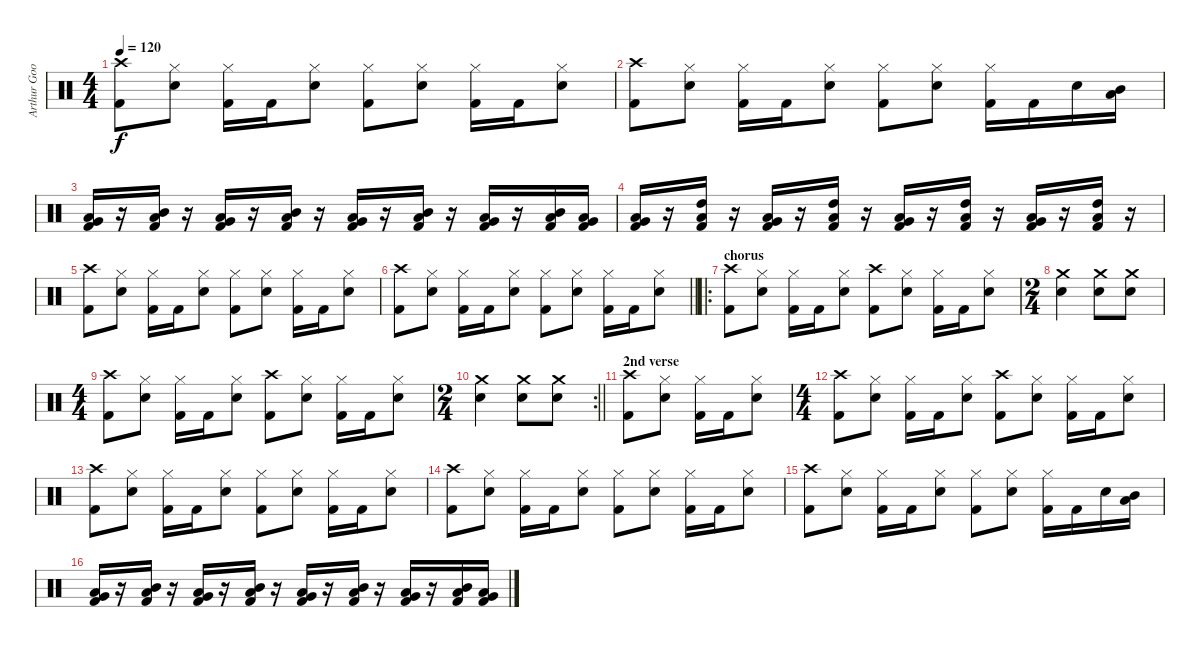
\track ("Arthur Googy" "Arthur Goo") {instrument percussion}
\staff {score}
\articulation defaults
\ts (4 4)
\tempo 120
\clef neutral
\ks c
("Crash high (hit)" "Kick (hit) 2").8{dy f} ("Hi-Hat (closed)" "Snare (hit) 2").8 ("Hi-Hat (closed)" "Kick (hit) 2").16 "Kick (hit) 2".16 ("Hi-Hat (closed)" "Snare (hit) 2").8 ("Hi-Hat (closed)" "Kick (hit) 2").8 ("Hi-Hat (closed)" "Snare (hit) 2").8 ("Hi-Hat (closed)" "Kick (hit) 2").16 "Kick (hit) 2".16 ("Hi-Hat (closed)" "Snare (hit) 2").8 |
("Crash high (hit)" "Kick (hit) 2").8 ("Hi-Hat (closed)" "Snare (hit) 2").8 ("Hi-Hat (closed)" "Kick (hit) 2").16 "Kick (hit) 2".16 ("Hi-Hat (closed)" "Snare (hit) 2").8 ("Hi-Hat (closed)" "Kick (hit) 2").8 ("Hi-Hat (closed)" "Snare (hit) 2").8 ("Hi-Hat (closed)" "Kick (hit) 2").16 "Kick (hit) 2".16 "Snare (hit) 2".16 ("Mid Tom (hit)" "Low Tom (hit)").16 |
("Low Tom (hit)" "Very Low Tom (hit)" "Kick (hit) 2").16 r.16 ("Mid Tom (hit)" "Low Tom (hit)" "Kick (hit) 2").16 r.16 ("Low Tom (hit)" "Very Low Tom (hit)" "Kick (hit) 2").16 r.16 ("Mid Tom (hit)" "Low Tom (hit)" "Kick (hit) 2").16 r.16 ("Low Tom (hit)" "Very Low Tom (hit)" "Kick (hit) 2").16 r.16 ("Mid Tom (hit)" "Low Tom (hit)" "Kick (hit) 2").16 r.16 ("Low Tom (hit)" "Very Low Tom (hit)" "Kick (hit) 2").16 r.16 ("Mid Tom (hit)" "Low Tom (hit)" "Kick (hit) 2").16 ("Low Tom (hit)" "Very Low Tom (hit)" "Kick (hit) 2").16 |
("Low Tom (hit)" "Very Low Tom (hit)" "Kick (hit) 2").16 r.16 ("High Tom (hit)" "Low Tom (hit)" "Kick (hit) 2").16 r.16 ("Low Tom (hit)" "Very Low Tom (hit)" "Kick (hit) 2").16 r.16 ("High Tom (hit)" "Low Tom (hit)" "Kick (hit) 2").16 r.16 ("Low Tom (hit)" "Very Low Tom (hit)" "Kick (hit) 2").16 r.16 ("High Tom (hit)" "Low Tom (hit)" "Kick (hit) 2").16 r.16 ("Low Tom (hit)" "Very Low Tom (hit)" "Kick (hit) 2").16 r.16 ("High Tom (hit)" "Low Tom (hit)" "Kick (hit) 2").16 r.16 |
("Crash high (hit)" "Kick (hit) 2").8 ("Hi-Hat (closed)" "Snare (hit) 2").8 ("Hi-Hat (closed)" "Kick (hit) 2").16 "Kick (hit) 2".16 ("Hi-Hat (closed)" "Snare (hit) 2").8 ("Hi-Hat (closed)" "Kick (hit) 2").8 ("Hi-Hat (closed)" "Snare (hit) 2").8 ("Hi-Hat (closed)" "Kick (hit) 2").16 "Kick (hit) 2".16 ("Hi-Hat (closed)" "Snare (hit) 2").8 |
\barLineRight lightlight
("Crash high (hit)" "Kick (hit) 2").8 ("Hi-Hat (closed)" "Snare (hit) 2").8 ("Hi-Hat (closed)" "Kick (hit) 2").16 "Kick (hit) 2".16 ("Hi-Hat (closed)" "Snare (hit) 2").8 ("Hi-Hat (closed)" "Kick (hit) 2").8 ("Hi-Hat (closed)" "Snare (hit) 2").8 ("Hi-Hat (closed)" "Kick (hit) 2").16 "Kick (hit) 2".16 ("Hi-Hat (closed)" "Snare (hit) 2").8 |
\ro
\section ("" "chorus")
("Crash high (hit)" "Kick (hit) 2").8 ("Hi-Hat (closed)" "Snare (hit) 2").8 ("Hi-Hat (closed)" "Kick (hit) 2").16 "Kick (hit) 2".16 ("Hi-Hat (closed)" "Snare (hit) 2").8 ("Crash high (hit)" "Kick (hit) 2").8 ("Hi-Hat (closed)" "Snare (hit) 2").8 ("Hi-Hat (closed)" "Kick (hit) 2").16 "Kick (hit) 2".16 ("Hi-Hat (closed)" "Snare (hit) 2").8 |
\ts (2 4)
("Crash medium (hit)" "Snare (hit) 2").4 ("Crash medium (hit)" "Snare (hit) 2").8 ("Crash medium (hit)" "Snare (hit) 2").8 |
\ts (4 4)
("Crash high (hit)" "Kick (hit) 2").8 ("Hi-Hat (closed)" "Snare (hit) 2").8 ("Hi-Hat (closed)" "Kick (hit) 2").16 "Kick (hit) 2".16 ("Hi-Hat (closed)" "Snare (hit) 2").8 ("Crash high (hit)" "Kick (hit) 2").8 ("Hi-Hat (closed)" "Snare (hit) 2").8 ("Hi-Hat (closed)" "Kick (hit) 2").16 "Kick (hit) 2".16 ("Hi-Hat (closed)" "Snare (hit) 2").8 |
\rc 2
\ts (2 4)
\barLineRight lightlight
("Crash medium (hit)" "Snare (hit) 2").4 ("Crash medium (hit)" "Snare (hit) 2").8 ("Crash medium (hit)" "Snare (hit) 2").8 |
\section ("" "2nd verse")
("Crash high (hit)" "Kick (hit) 2").8 ("Hi-Hat (closed)" "Snare (hit) 2").8 ("Hi-Hat (closed)" "Kick (hit) 2").16 "Kick (hit) 2".16 ("Hi-Hat (closed)" "Snare (hit) 2").8 |
\ts (4 4)
("Crash high (hit)" "Kick (hit) 2").8 ("Hi-Hat (closed)" "Snare (hit) 2").8 ("Hi-Hat (closed)" "Kick (hit) 2").16 "Kick (hit) 2".16 ("Hi-Hat (closed)" "Snare (hit) 2").8 ("Crash high (hit)" "Kick (hit) 2").8 ("Hi-Hat (closed)" "Snare (hit) 2").8 ("Hi-Hat (closed)" "Kick (hit) 2").16 "Kick (hit) 2".16 ("Hi-Hat (closed)" "Snare (hit) 2").8 |
("Crash high (hit)" "Kick (hit) 2").8 ("Hi-Hat (closed)" "Snare (hit) 2").8 ("Hi-Hat (closed)" "Kick (hit) 2").16 "Kick (hit) 2".16 ("Hi-Hat (closed)" "Snare (hit) 2").8 ("Hi-Hat (closed)" "Kick (hit) 2").8 ("Hi-Hat (closed)" "Snare (hit) 2").8 ("Hi-Hat (closed)" "Kick (hit) 2").16 "Kick (hit) 2".16 ("Hi-Hat (closed)" "Snare (hit) 2").8 |
("Crash high (hit)" "Kick (hit) 2").8 ("Hi-Hat (closed)" "Snare (hit) 2").8 ("Hi-Hat (closed)" "Kick (hit) 2").16 "Kick (hit) 2".16 ("Hi-Hat (closed)" "Snare (hit) 2").8 ("Hi-Hat (closed)" "Kick (hit) 2").8 ("Hi-Hat (closed)" "Snare (hit) 2").8 ("Hi-Hat (closed)" "Kick (hit) 2").16 "Kick (hit) 2".16 ("Hi-Hat (closed)" "Snare (hit) 2").8 |
("Crash high (hit)" "Kick (hit) 2").8 ("Hi-Hat (closed)" "Snare (hit) 2").8 ("Hi-Hat (closed)" "Kick (hit) 2").16 "Kick (hit) 2".16 ("Hi-Hat (closed)" "Snare (hit) 2").8 ("Hi-Hat (closed)" "Kick (hit) 2").8 ("Hi-Hat (closed)" "Snare (hit) 2").8 ("Hi-Hat (closed)" "Kick (hit) 2").16 "Kick (hit) 2".16 "Snare (hit) 2".16 ("Mid Tom (hit)" "Low Tom (hit)").16 |
("Low Tom (hit)" "Very Low Tom (hit)" "Kick (hit) 2").16 r.16 ("Mid Tom (hit)" "Low Tom (hit)" "Kick (hit) 2").16 r.16 ("Low Tom (hit)" "Very Low Tom (hit)" "Kick (hit) 2").16 r.16 ("Mid Tom (hit)" "Low Tom (hit)" "Kick (hit) 2").16 r.16 ("Low Tom (hit)" "Very Low Tom (hit)" "Kick (hit) 2").16 r.16 ("Mid Tom (hit)" "Low Tom (hit)" "Kick (hit) 2").16 r.16 ("Low Tom (hit)" "Very Low Tom (hit)" "Kick (hit) 2").16 r.16 ("Mid Tom (hit)" "Low Tom (hit)" "Kick (hit) 2").16 ("Low Tom (hit)" "Very Low Tom (hit)" "Kick (hit) 2").16
